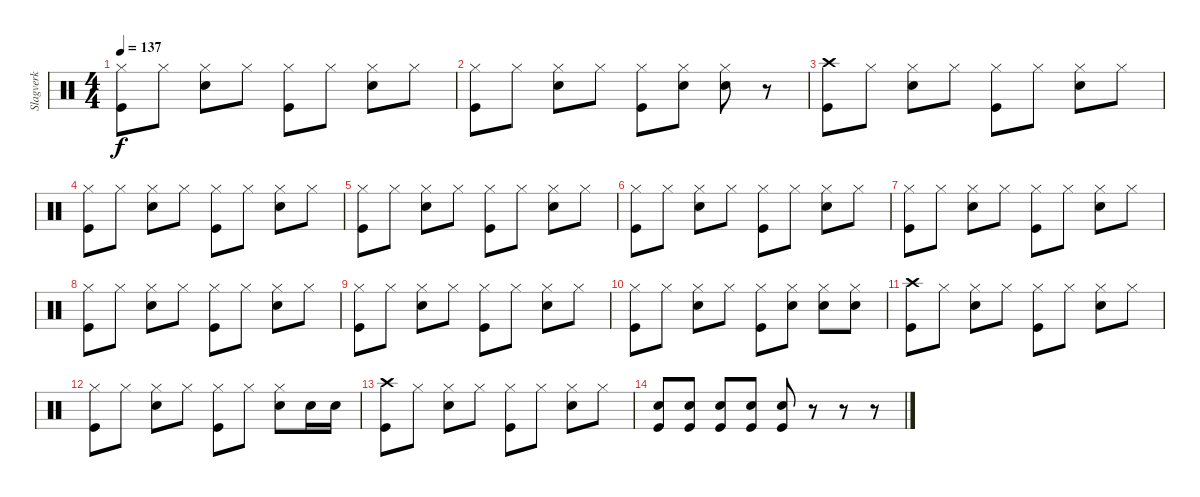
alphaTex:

\track ("Slagverk" "Slagverk") {instrument percussion}
\staff {score}
\articulation defaults
\ts (4 4)
\tempo 137
\clef neutral
\ks c
("Hi-Hat (closed)" "Kick (hit)").8{dy f} "Hi-Hat (closed)".8 ("Hi-Hat (closed)" "Snare (hit) 2").8 "Hi-Hat (closed)".8 ("Hi-Hat (closed)" "Kick (hit)").8 "Hi-Hat (closed)".8 ("Hi-Hat (closed)" "Snare (hit) 2").8 "Hi-Hat (closed)".8 |
("Hi-Hat (closed)" "Kick (hit)").8 "Hi-Hat (closed)".8 ("Hi-Hat (closed)" "Snare (hit) 2").8 "Hi-Hat (closed)".8 ("Hi-Hat (closed)" "Kick (hit)").8 ("Hi-Hat (closed)" "Snare (hit) 2").8 ("Hi-Hat (closed)" "Snare (hit) 2").8 r.8 |
("Crash high (hit)" "Kick (hit)").8 "Hi-Hat (closed)".8 ("Hi-Hat (closed)" "Snare (hit) 2").8 "Hi-Hat (closed)".8 ("Hi-Hat (closed)" "Kick (hit)").8 "Hi-Hat (closed)".8 ("Hi-Hat (closed)" "Snare (hit) 2").8 "Hi-Hat (closed)".8 |
("Hi-Hat (closed)" "Kick (hit)").8 "Hi-Hat (closed)".8 ("Hi-Hat (closed)" "Snare (hit) 2").8 "Hi-Hat (closed)".8 ("Hi-Hat (closed)" "Kick (hit)").8 "Hi-Hat (closed)".8 ("Hi-Hat (closed)" "Snare (hit) 2").8 "Hi-Hat (closed)".8 |
("Hi-Hat (closed)" "Kick (hit)").8 "Hi-Hat (closed)".8 ("Hi-Hat (closed)" "Snare (hit) 2").8 "Hi-Hat (closed)".8 ("Hi-Hat (closed)" "Kick (hit)").8 "Hi-Hat (closed)".8 ("Hi-Hat (closed)" "Snare (hit) 2").8 "Hi-Hat (closed)".8 |
("Hi-Hat (closed)" "Kick (hit)").8 "Hi-Hat (closed)".8 ("Hi-Hat (closed)" "Snare (hit) 2").8 "Hi-Hat (closed)".8 ("Hi-Hat (closed)" "Kick (hit)").8 "Hi-Hat (closed)".8 ("Hi-Hat (closed)" "Snare (hit) 2").8 "Hi-Hat (closed)".8 |
("Hi-Hat (closed)" "Kick (hit)").8 "Hi-Hat (closed)".8 ("Hi-Hat (closed)" "Snare (hit) 2").8 "Hi-Hat (closed)".8 ("Hi-Hat (closed)" "Kick (hit)").8 "Hi-Hat (closed)".8 ("Hi-Hat (closed)" "Snare (hit) 2").8 "Hi-Hat (closed)".8 |
("Hi-Hat (closed)" "Kick (hit)").8 "Hi-Hat (closed)".8 ("Hi-Hat (closed)" "Snare (hit) 2").8 "Hi-Hat (closed)".8 ("Hi-Hat (closed)" "Kick (hit)").8 "Hi-Hat (closed)".8 ("Hi-Hat (closed)" "Snare (hit) 2").8 "Hi-Hat (closed)".8 |
("Hi-Hat (closed)" "Kick (hit)").8 "Hi-Hat (closed)".8 ("Hi-Hat (closed)" "Snare (hit) 2").8 "Hi-Hat (closed)".8 ("Hi-Hat (closed)" "Kick (hit)").8 "Hi-Hat (closed)".8 ("Hi-Hat (closed)" "Snare (hit) 2").8 "Hi-Hat (closed)".8 |
("Hi-Hat (closed)" "Kick (hit)").8 "Hi-Hat (closed)".8 ("Hi-Hat (closed)" "Snare (hit) 2").8 "Hi-Hat (closed)".8 ("Hi-Hat (closed)" "Kick (hit)").8 ("Hi-Hat (closed)" "Snare (hit) 2").8 ("Hi-Hat (closed)" "Snare (hit) 2").8 ("Hi-Hat (closed)" "Snare (hit) 2").8 |
("Crash high (hit)" "Kick (hit)").8 "Hi-Hat (closed)".8 ("Hi-Hat (closed)" "Snare (hit) 2").8 "Hi-Hat (closed)".8 ("Hi-Hat (closed)" "Kick (hit)").8 "Hi-Hat (closed)".8 ("Hi-Hat (closed)" "Snare (hit) 2").8 "Hi-Hat (closed)".8 |
("Hi-Hat (closed)" "Kick (hit)").8 "Hi-Hat (closed)".8 ("Hi-Hat (closed)" "Snare (hit) 2").8 "Hi-Hat (closed)".8 ("Hi-Hat (closed)" "Kick (hit)").8 "Hi-Hat (closed)".8 ("Hi-Hat (closed)" "Snare (hit) 2").8 "Snare (hit) 2".16 "Snare (hit) 2".16 |
("Crash high (hit)" "Kick (hit)").8 "Hi-Hat (closed)".8 ("Hi-Hat (closed)" "Snare (hit) 2").8 "Hi-Hat (closed)".8 ("Hi-Hat (closed)" "Kick (hit)").8 "Hi-Hat (closed)".8 ("Hi-Hat (closed)" "Snare (hit) 2").8 "Hi-Hat (closed)".8 |
("Kick (hit)" "Snare (hit) 2").8 ("Kick (hit)" "Snare (hit) 2").8 ("Kick (hit)" "Snare (hit) 2").8 ("Kick (hit)" "Snare (hit) 2").8 ("Kick (hit)" "Snare (hit) 2").8 r.8 r.8 r.8
